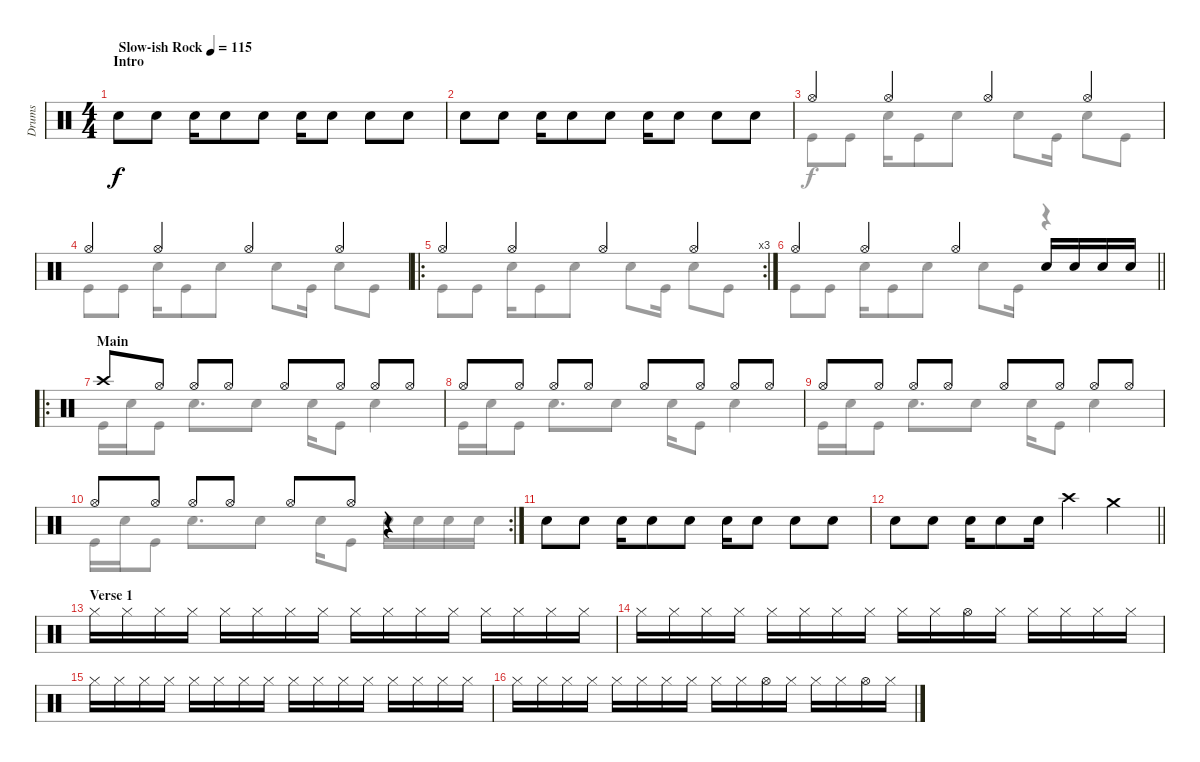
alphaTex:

\track ("Drums" "Drums") {instrument percussion}
\staff {score}
\articulation defaults
\voice
\ts (4 4)
\section ("" "Intro")
\tempo (115 "Slow-ish Rock")
\clef neutral
\ks c "Electric Snare (hit)".8{dy f} "Electric Snare (hit)".8 "Electric Snare (hit)".16 "Electric Snare (hit)".8 "Electric Snare (hit)".8 "Electric Snare (hit)".16 "Electric Snare (hit)".8 "Electric Snare (hit)".8 "Electric Snare (hit)".8
|
"Electric Snare (hit)".8 "Electric Snare (hit)".8 "Electric Snare (hit)".16 "Electric Snare (hit)".8 "Electric Snare (hit)".8 "Electric Snare (hit)".16 "Electric Snare (hit)".8 "Electric Snare (hit)".8 "Electric Snare (hit)".8 |
"Hi-Hat (open)".4 "Hi-Hat (open)".4 "Hi-Hat (open)".4 "Hi-Hat (open)".4 |
"Hi-Hat (open)".4 "Hi-Hat (open)".4 "Hi-Hat (open)".4 "Hi-Hat (open)".4 |
\ro
\rc 3 "Hi-Hat (open)".4 "Hi-Hat (open)".4 "Hi-Hat (open)".4 "Hi-Hat (open)".4
|
\barLineRight lightlight "Hi-Hat (open)".4 "Hi-Hat (open)".4 "Hi-Hat (open)".4 "Electric Snare (hit)".16 "Electric Snare (hit)".16 "Electric Snare (hit)".16 "Electric Snare (hit)".16
|
\ro
\section ("" "Main")
"Crash high (hit)".8 "Hi-Hat (open)".8 "Hi-Hat (open)".8 "Hi-Hat (open)".8 "Hi-Hat (open)".8 "Hi-Hat (open)".8 "Hi-Hat (open)".8 "Hi-Hat (open)".8 |
"Hi-Hat (open)".8 "Hi-Hat (open)".8 "Hi-Hat (open)".8 "Hi-Hat (open)".8 "Hi-Hat (open)".8 "Hi-Hat (open)".8 "Hi-Hat (open)".8 "Hi-Hat (open)".8 |
"Hi-Hat (open)".8 "Hi-Hat (open)".8 "Hi-Hat (open)".8 "Hi-Hat (open)".8 "Hi-Hat (open)".8 "Hi-Hat (open)".8 "Hi-Hat (open)".8 "Hi-Hat (open)".8 |
\rc 2 "Hi-Hat (open)".8 "Hi-Hat (open)".8 "Hi-Hat (open)".8 "Hi-Hat (open)".8 "Hi-Hat (open)".8 "Hi-Hat (open)".8
r.4 |
"Electric Snare (hit)".8 "Electric Snare (hit)".8 "Electric Snare (hit)".16 "Electric Snare (hit)".8 "Electric Snare (hit)".8 "Electric Snare (hit)".16 "Electric Snare (hit)".8 "Electric Snare (hit)".8 "Electric Snare (hit)".8 |
\barLineRight lightlight "Electric Snare (hit)".8 "Electric Snare (hit)".8 "Electric Snare (hit)".16 "Electric Snare (hit)".8 "Electric Snare (hit)".16 "Crash high (hit)".4 "Crash medium (hit)".4
|
\section ("" "Verse 1")
"Hi-Hat (closed)".16 "Hi-Hat (closed)".16 "Hi-Hat (closed)".16 "Hi-Hat (closed)".16 "Hi-Hat (closed)".16 "Hi-Hat (closed)".16 "Hi-Hat (closed)".16 "Hi-Hat (closed)".16 "Hi-Hat (closed)".16 "Hi-Hat (closed)".16 "Hi-Hat (closed)".16 "Hi-Hat (closed)".16 "Hi-Hat (closed)".16 "Hi-Hat (closed)".16 "Hi-Hat (closed)".16 "Hi-Hat (closed)".16 |
"Hi-Hat (closed)".16 "Hi-Hat (closed)".16 "Hi-Hat (closed)".16 "Hi-Hat (closed)".16 "Hi-Hat (closed)".16 "Hi-Hat (closed)".16 "Hi-Hat (closed)".16 "Hi-Hat (closed)".16 "Hi-Hat (closed)".16 "Hi-Hat (closed)".16 "Hi-Hat (open)".16 "Hi-Hat (closed)".16 "Hi-Hat (closed)".16 "Hi-Hat (closed)".16 "Hi-Hat (closed)".16 "Hi-Hat (closed)".16 |
"Hi-Hat (closed)".16 "Hi-Hat (closed)".16 "Hi-Hat (closed)".16 "Hi-Hat (closed)".16 "Hi-Hat (closed)".16 "Hi-Hat (closed)".16 "Hi-Hat (closed)".16 "Hi-Hat (closed)".16 "Hi-Hat (closed)".16 "Hi-Hat (closed)".16 "Hi-Hat (closed)".16 "Hi-Hat (closed)".16 "Hi-Hat (closed)".16 "Hi-Hat (closed)".16 "Hi-Hat (closed)".16 "Hi-Hat (closed)".16 |
"Hi-Hat (closed)".16 "Hi-Hat (closed)".16 "Hi-Hat (closed)".16 "Hi-Hat (closed)".16 "Hi-Hat (closed)".16 "Hi-Hat (closed)".16 "Hi-Hat (closed)".16 "Hi-Hat (closed)".16 "Hi-Hat (closed)".16 "Hi-Hat (closed)".16 "Hi-Hat (open)".16 "Hi-Hat (closed)".16 "Hi-Hat (closed)".16 "Hi-Hat (closed)".16 "Hi-Hat (open)".16 "Hi-Hat (closed)".16
\voice
\clef neutral
\ottava regular
\simile none
\ks c
|
|
"Kick (hit)".8 "Kick (hit)".8 "Electric Snare (hit)".16 "Kick (hit)".8 "Electric Snare (hit)".8 "Electric Snare (hit)".8 "Kick (hit)".16 "Electric Snare (hit)".8 "Kick (hit)".8 |
"Kick (hit)".8 "Kick (hit)".8 "Electric Snare (hit)".16 "Kick (hit)".8 "Electric Snare (hit)".8 "Electric Snare (hit)".8 "Kick (hit)".16 "Electric Snare (hit)".8 "Kick (hit)".8 |
"Kick (hit)".8 "Kick (hit)".8 "Electric Snare (hit)".16 "Kick (hit)".8 "Electric Snare (hit)".8 "Electric Snare (hit)".8 "Kick (hit)".16 "Electric Snare (hit)".8 "Kick (hit)".8 |
\barLineRight lightlight "Kick (hit)".8 "Kick (hit)".8 "Electric Snare (hit)".16 "Kick (hit)".8 "Electric Snare (hit)".8 "Electric Snare (hit)".8 "Kick (hit)".16
r.4 |
"Kick (hit)".16 "Electric Snare (hit)".16 "Kick (hit)".8 "Electric Snare (hit)".8{d} "Electric Snare (hit)".8 "Electric Snare (hit)".16 "Kick (hit)".8 "Electric Snare (hit)".4 |
"Kick (hit)".16 "Electric Snare (hit)".16 "Kick (hit)".8 "Electric Snare (hit)".8{d} "Electric Snare (hit)".8 "Electric Snare (hit)".16 "Kick (hit)".8 "Electric Snare (hit)".4 |
"Kick (hit)".16 "Electric Snare (hit)".16 "Kick (hit)".8 "Electric Snare (hit)".8{d} "Electric Snare (hit)".8 "Electric Snare (hit)".16 "Kick (hit)".8 "Electric Snare (hit)".4 |
"Kick (hit)".16 "Electric Snare (hit)".16 "Kick (hit)".8 "Electric Snare (hit)".8{d} "Electric Snare (hit)".8 "Electric Snare (hit)".16 "Kick (hit)".8 "Electric Snare (hit)".16 "Electric Snare (hit)".16 "Electric Snare (hit)".16 "Electric Snare (hit)".16 |
|
\barLineRight lightlight
|
|
|
|
